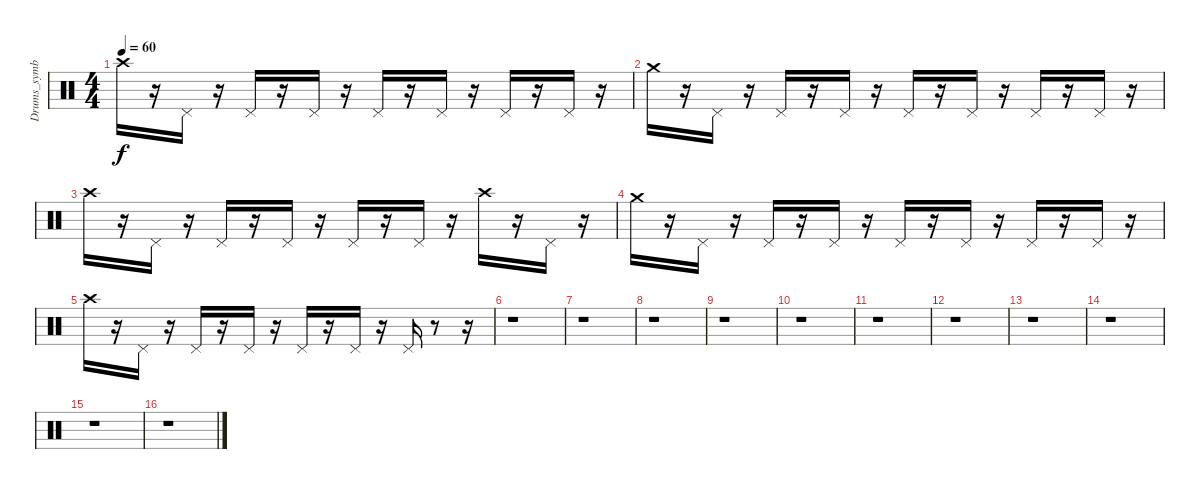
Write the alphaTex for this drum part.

\track ("Drums_symbal" "Drums_symb") {instrument percussion}
\staff {score}
\articulation defaults
\ts (4 4)
\tempo 60
\clef neutral
\ks c "Crash high (hit)".16{dy f}
r.16 "Pedal Hi-Hat (hit)".16 r.16 "Pedal Hi-Hat (hit)".16 r.16 "Pedal Hi-Hat (hit)".16 r.16 "Pedal Hi-Hat (hit)".16 r.16 "Pedal Hi-Hat (hit)".16 r.16 "Pedal Hi-Hat (hit)".16 r.16 "Pedal Hi-Hat (hit)".16 r.16 |
"Crash medium (hit)".16 r.16 "Pedal Hi-Hat (hit)".16 r.16 "Pedal Hi-Hat (hit)".16 r.16 "Pedal Hi-Hat (hit)".16 r.16 "Pedal Hi-Hat (hit)".16 r.16 "Pedal Hi-Hat (hit)".16 r.16 "Pedal Hi-Hat (hit)".16 r.16 "Pedal Hi-Hat (hit)".16 r.16 |
"Crash high (hit)".16 r.16 "Pedal Hi-Hat (hit)".16 r.16 "Pedal Hi-Hat (hit)".16 r.16 "Pedal Hi-Hat (hit)".16 r.16 "Pedal Hi-Hat (hit)".16 r.16 "Pedal Hi-Hat (hit)".16 r.16 "Crash high (hit)".16 r.16 "Pedal Hi-Hat (hit)".16 r.16 |
"Crash medium (hit)".16 r.16 "Pedal Hi-Hat (hit)".16 r.16 "Pedal Hi-Hat (hit)".16 r.16 "Pedal Hi-Hat (hit)".16 r.16 "Pedal Hi-Hat (hit)".16 r.16 "Pedal Hi-Hat (hit)".16 r.16 "Pedal Hi-Hat (hit)".16 r.16 "Pedal Hi-Hat (hit)".16 r.16 |
"Crash high (hit)".16 r.16 "Pedal Hi-Hat (hit)".16 r.16 "Pedal Hi-Hat (hit)".16 r.16 "Pedal Hi-Hat (hit)".16 r.16 "Pedal Hi-Hat (hit)".16 r.16 "Pedal Hi-Hat (hit)".16 r.16 "Pedal Hi-Hat (hit)".16 r.8 r.16 |
r.1 |
r.1 |
r.1 |
r.1 |
r.1 |
r.1 |
r.1 |
r.1 |
r.1 |
r.1 |
r.1
